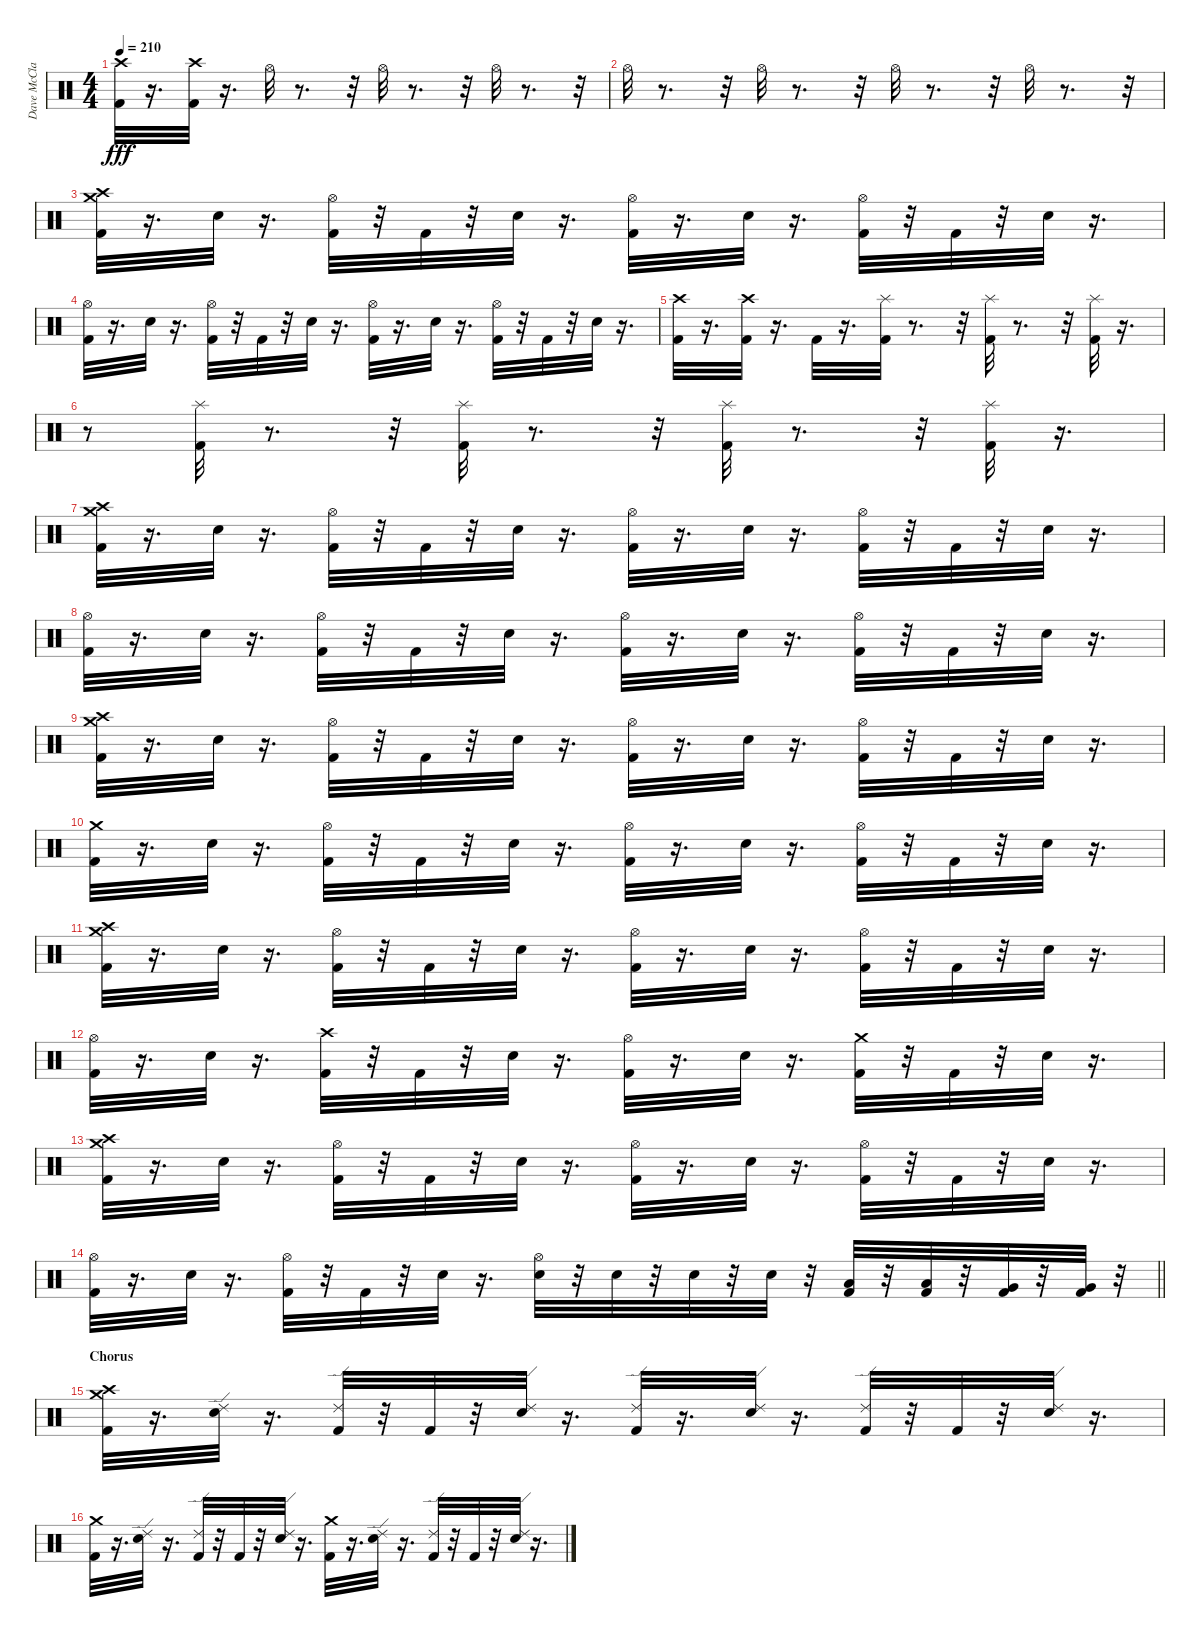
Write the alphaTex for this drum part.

\track ("Dave McClain" "Dave McCla") {instrument percussion}
\staff {score}
\articulation defaults
\ts (4 4)
\tempo 210
\clef neutral
\ks c
("Crash high (hit)" "Kick (hit) 2").32{dy fff} r.16{d} ("Crash high (hit)" "Kick (hit) 2").32 r.16{d} "Hi-Hat (open)".32 r.8{d} r.32 "Hi-Hat (open)".32 r.8{d} r.32 "Hi-Hat (open)".32 r.8{d} r.32 |
"Hi-Hat (open)".32 r.8{d} r.32 "Hi-Hat (open)".32 r.8{d} r.32 "Hi-Hat (open)".32 r.8{d} r.32 "Hi-Hat (open)".32 r.8{d} r.32 |
("Crash medium (hit)" "Crash high (hit)" "Kick (hit) 2").32 r.16{d} "Snare (hit) 2".32 r.16{d} ("Kick (hit) 2" "Hi-Hat (open)").32 r.32 "Kick (hit) 2".32 r.32 "Snare (hit) 2".32 r.16{d} ("Hi-Hat (open)" "Kick (hit) 2").32 r.16{d} "Snare (hit) 2".32 r.16{d} ("Hi-Hat (open)" "Kick (hit) 2").32 r.32 "Kick (hit) 2".32 r.32 "Snare (hit) 2".32 r.16{d} |
("Hi-Hat (open)" "Kick (hit) 2").32 r.16{d} "Snare (hit) 2".32 r.16{d} ("Hi-Hat (open)" "Kick (hit) 2").32 r.32 "Kick (hit) 2".32 r.32 "Snare (hit) 2".32 r.16{d} ("Hi-Hat (open)" "Kick (hit) 2").32 r.16{d} "Snare (hit) 2".32 r.16{d} ("Hi-Hat (open)" "Kick (hit) 2").32 r.32 "Kick (hit) 2".32 r.32 "Snare (hit) 2".32 r.16{d} |
("Crash high (hit)" "Kick (hit) 2").32 r.16{d} ("Crash high (hit)" "Kick (hit) 2").32 r.16{d} "Kick (hit) 2".32 r.16{d} ("Kick (hit) 2" "Splash (hit)").32 r.8{d} r.32 ("Kick (hit) 2" "Splash (hit)").32 r.8{d} r.32 ("Kick (hit) 2" "Splash (hit)").32 r.16{d} |
r.8 ("Kick (hit) 2" "Splash (hit)").32 r.8{d} r.32 ("Kick (hit) 2" "Splash (hit)").32 r.8{d} r.32 ("Kick (hit) 2" "Splash (hit)").32 r.8{d} r.32 ("Splash (hit)" "Kick (hit) 2").32 r.16{d} |
("Crash medium (hit)" "Crash high (hit)" "Kick (hit) 2").32 r.16{d} "Snare (hit) 2".32 r.16{d} ("Kick (hit) 2" "Hi-Hat (open)").32 r.32 "Kick (hit) 2".32 r.32 "Snare (hit) 2".32 r.16{d} ("Hi-Hat (open)" "Kick (hit) 2").32 r.16{d} "Snare (hit) 2".32 r.16{d} ("Hi-Hat (open)" "Kick (hit) 2").32 r.32 "Kick (hit) 2".32 r.32 "Snare (hit) 2".32 r.16{d} |
("Hi-Hat (open)" "Kick (hit) 2").32 r.16{d} "Snare (hit) 2".32 r.16{d} ("Hi-Hat (open)" "Kick (hit) 2").32 r.32 "Kick (hit) 2".32 r.32 "Snare (hit) 2".32 r.16{d} ("Hi-Hat (open)" "Kick (hit) 2").32 r.16{d} "Snare (hit) 2".32 r.16{d} ("Hi-Hat (open)" "Kick (hit) 2").32 r.32 "Kick (hit) 2".32 r.32 "Snare (hit) 2".32 r.16{d} |
("Crash medium (hit)" "Crash high (hit)" "Kick (hit) 2").32 r.16{d} "Snare (hit) 2".32 r.16{d} ("Kick (hit) 2" "Hi-Hat (open)").32 r.32 "Kick (hit) 2".32 r.32 "Snare (hit) 2".32 r.16{d} ("Hi-Hat (open)" "Kick (hit) 2").32 r.16{d} "Snare (hit) 2".32 r.16{d} ("Hi-Hat (open)" "Kick (hit) 2").32 r.32 "Kick (hit) 2".32 r.32 "Snare (hit) 2".32 r.16{d} |
("Crash medium (hit)" "Kick (hit) 2").32 r.16{d} "Snare (hit) 2".32 r.16{d} ("Hi-Hat (open)" "Kick (hit) 2").32 r.32 "Kick (hit) 2".32 r.32 "Snare (hit) 2".32 r.16{d} ("Hi-Hat (open)" "Kick (hit) 2").32 r.16{d} "Snare (hit) 2".32 r.16{d} ("Hi-Hat (open)" "Kick (hit) 2").32 r.32 "Kick (hit) 2".32 r.32 "Snare (hit) 2".32 r.16{d} |
("Crash medium (hit)" "Crash high (hit)" "Kick (hit) 2").32 r.16{d} "Snare (hit) 2".32 r.16{d} ("Kick (hit) 2" "Hi-Hat (open)").32 r.32 "Kick (hit) 2".32 r.32 "Snare (hit) 2".32 r.16{d} ("Hi-Hat (open)" "Kick (hit) 2").32 r.16{d} "Snare (hit) 2".32 r.16{d} ("Hi-Hat (open)" "Kick (hit) 2").32 r.32 "Kick (hit) 2".32 r.32 "Snare (hit) 2".32 r.16{d} |
("Hi-Hat (open)" "Kick (hit) 2").32 r.16{d} "Snare (hit) 2".32 r.16{d} ("Crash high (hit)" "Kick (hit) 2").32 r.32 "Kick (hit) 2".32 r.32 "Snare (hit) 2".32 r.16{d} ("Hi-Hat (open)" "Kick (hit) 2").32 r.16{d} "Snare (hit) 2".32 r.16{d} ("Crash medium (hit)" "Kick (hit) 2").32 r.32 "Kick (hit) 2".32 r.32 "Snare (hit) 2".32 r.16{d} |
("Crash medium (hit)" "Crash high (hit)" "Kick (hit) 2").32 r.16{d} "Snare (hit) 2".32 r.16{d} ("Kick (hit) 2" "Hi-Hat (open)").32 r.32 "Kick (hit) 2".32 r.32 "Snare (hit) 2".32 r.16{d} ("Hi-Hat (open)" "Kick (hit) 2").32 r.16{d} "Snare (hit) 2".32 r.16{d} ("Hi-Hat (open)" "Kick (hit) 2").32 r.32 "Kick (hit) 2".32 r.32 "Snare (hit) 2".32 r.16{d} |
\barLineRight lightlight
("Hi-Hat (open)" "Kick (hit) 2").32 r.16{d} "Snare (hit) 2".32 r.16{d} ("Hi-Hat (open)" "Kick (hit) 2").32 r.32 "Kick (hit) 2".32 r.32 "Snare (hit) 2".32 r.16{d} ("Snare (hit) 2" "Hi-Hat (open)").32 r.32 "Snare (hit) 2".32 r.32 "Snare (hit) 2".32 r.32 "Snare (hit) 2".32 r.32 ("Low Tom (hit)" "Kick (hit) 2").32 r.32 ("Low Tom (hit)" "Kick (hit) 2").32 r.32 ("Very Low Tom (hit)" "Kick (hit) 2").32 r.32 ("Very Low Tom (hit)" "Kick (hit) 2").32 r.32 |
\section ("" "Chorus")
("Crash medium (hit)" "Crash high (hit)" "Kick (hit) 2").32 r.16{d} ("Ride (edge) 2" "Snare (hit) 2").32 r.16{d} ("Ride (edge) 2" "Kick (hit) 2").32 r.32 "Kick (hit) 2".32 r.32 ("Ride (edge) 2" "Snare (hit) 2").32 r.16{d} ("Ride (edge) 2" "Kick (hit) 2").32 r.16{d} ("Ride (edge) 2" "Snare (hit) 2").32 r.16{d} ("Ride (edge) 2" "Kick (hit) 2").32 r.32 "Kick (hit) 2".32 r.32 ("Ride (edge) 2" "Snare (hit) 2").32 r.16{d} |
("Crash medium (hit)" "Kick (hit) 2").32 r.16{d} ("Ride (edge) 2" "Snare (hit) 2").32 r.16{d} ("Ride (edge) 2" "Kick (hit) 2").32 r.32 "Kick (hit) 2".32 r.32 ("Ride (edge) 2" "Snare (hit) 2").32 r.16{d} ("Crash medium (hit)" "Kick (hit) 2").32 r.16{d} ("Ride (edge) 2" "Snare (hit) 2").32 r.16{d} ("Ride (edge) 2" "Kick (hit) 2").32 r.32 "Kick (hit) 2".32 r.32 ("Ride (edge) 2" "Snare (hit) 2").32 r.16{d}
